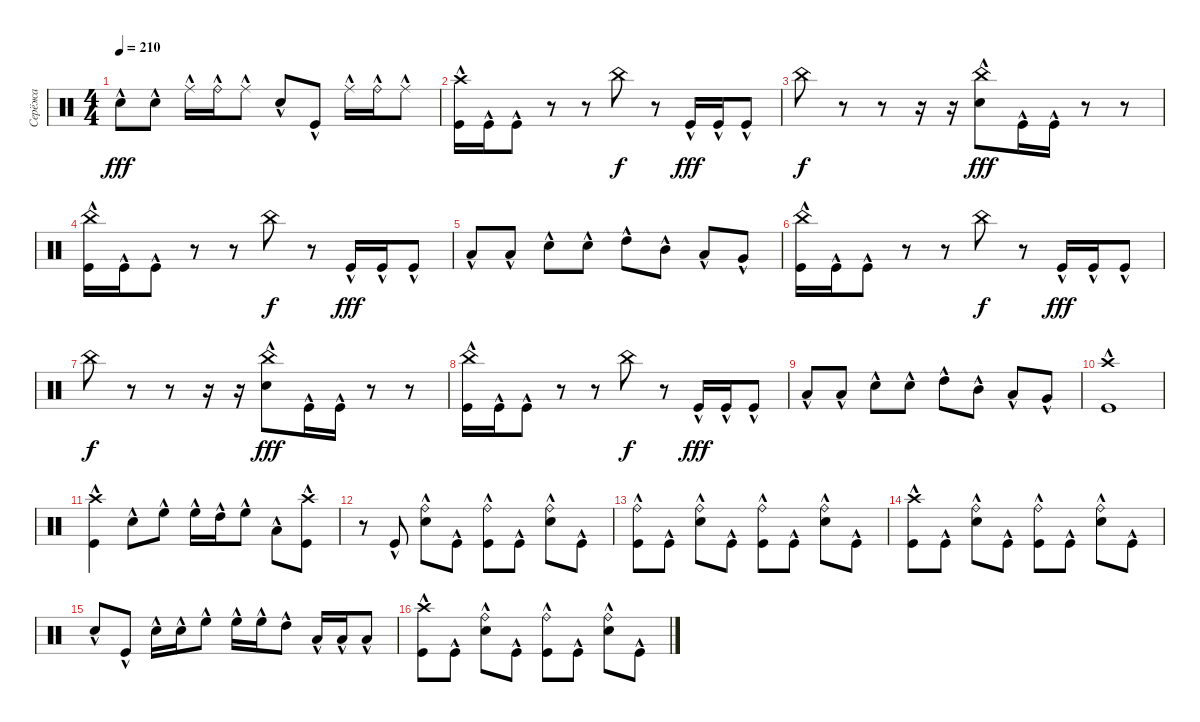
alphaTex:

\track ("Серёжа" "Серёжа") {instrument percussion}
\staff {score}
\articulation defaults
\ts (4 4)
\tempo 210
\clef neutral
\ks c "Snare (hit) 2"{hac}.8{dy fff} "Snare (hit) 2"{hac}.8 "Ride (middle)"{hac}.16 "Ride (bell)"{hac}.16 "Ride (middle)"{hac}.8 "Snare (hit) 2"{hac}.8 "Kick (hit)"{hac}.8 "Ride (middle)"{hac}.16 "Ride (bell)"{hac}.16 "Ride (middle)"{hac}.8
|
("Crash high (hit)"{hac} "Kick (hit)"{hac}).16 "Kick (hit)"{hac}.16 "Kick (hit)"{hac}.8 r.8 r.8 "China (hit)".8{dy f} r.8 "Kick (hit)"{hac}.16{dy fff} "Kick (hit)"{hac}.16 "Kick (hit)"{hac}.8 |
"China (hit)".8{dy f} r.8 r.8 r.16 r.16 ("China (hit)" "Snare (hit) 2"{hac}).8{dy fff} "Kick (hit)"{hac}.16 "Kick (hit)"{hac}.16 r.8 r.8 |
("China (hit)" "Kick (hit)"{hac}).16 "Kick (hit)"{hac}.16 "Kick (hit)"{hac}.8 r.8 r.8 "China (hit)".8{dy f} r.8 "Kick (hit)"{hac}.16{dy fff} "Kick (hit)"{hac}.16 "Kick (hit)"{hac}.8 |
"Low Floor Tom (hit)"{hac}.8 "Low Floor Tom (hit)"{hac}.8 "Snare (hit) 2"{hac}.8 "Snare (hit) 2"{hac}.8 "High Tom (hit)"{hac}.8 "Mid Tom (hit)"{hac}.8 "Low Tom (hit)"{hac}.8 "Very Low Tom (hit)"{hac}.8 |
("China (hit)" "Kick (hit)"{hac}).16 "Kick (hit)"{hac}.16 "Kick (hit)"{hac}.8 r.8 r.8 "China (hit)".8{dy f} r.8 "Kick (hit)"{hac}.16{dy fff} "Kick (hit)"{hac}.16 "Kick (hit)"{hac}.8 |
"China (hit)".8{dy f} r.8 r.8 r.16 r.16 ("China (hit)" "Snare (hit) 2"{hac}).8{dy fff} "Kick (hit)"{hac}.16 "Kick (hit)"{hac}.16 r.8 r.8 |
("China (hit)" "Kick (hit)"{hac}).16 "Kick (hit)"{hac}.16 "Kick (hit)"{hac}.8 r.8 r.8 "China (hit)".8{dy f} r.8 "Kick (hit)"{hac}.16{dy fff} "Kick (hit)"{hac}.16 "Kick (hit)"{hac}.8 |
"Low Floor Tom (hit)"{hac}.8 "Low Floor Tom (hit)"{hac}.8 "Snare (hit) 2"{hac}.8 "Snare (hit) 2"{hac}.8 "High Tom (hit)"{hac}.8 "Mid Tom (hit)"{hac}.8 "Low Tom (hit)"{hac}.8 "Very Low Tom (hit)"{hac}.8 |
("Crash high (hit)"{hac} "Kick (hit)"{hac}).1 |
("Crash high (hit)"{hac} "Kick (hit)"{hac}).4 "Snare (hit) 2"{hac}.8 "High Floor Tom (hit)"{hac}.8 "High Floor Tom (hit)"{hac}.16 "High Tom (hit)"{hac}.16 "High Floor Tom (hit)"{hac}.8 "Low Tom (hit)"{hac}.8 ("Crash high (hit)" "Kick (hit)"{hac}).8 |
r.8 "Kick (hit)"{hac}.8 ("Ride (bell)" "Snare (hit) 2"{hac}).8 "Kick (hit)"{hac}.8 ("Ride (bell)" "Kick (hit)"{hac}).8 "Kick (hit)"{hac}.8 ("Ride (bell)" "Snare (hit) 2"{hac}).8 "Kick (hit)"{hac}.8 |
("Ride (bell)" "Kick (hit)"{hac}).8 "Kick (hit)"{hac}.8 ("Ride (bell)" "Snare (hit) 2"{hac}).8 "Kick (hit)"{hac}.8 ("Ride (bell)" "Kick (hit)"{hac}).8 "Kick (hit)"{hac}.8 ("Ride (bell)" "Snare (hit) 2"{hac}).8 "Kick (hit)"{hac}.8 |
("Crash high (hit)"{hac} "Kick (hit)"{hac}).8 "Kick (hit)"{hac}.8 ("Ride (bell)" "Snare (hit) 2"{hac}).8 "Kick (hit)"{hac}.8 ("Ride (bell)" "Kick (hit)"{hac}).8 "Kick (hit)"{hac}.8 ("Ride (bell)" "Snare (hit) 2"{hac}).8 "Kick (hit)"{hac}.8 |
"Snare (hit) 2"{hac}.8 "Kick (hit)"{hac}.8 "Snare (hit) 2"{hac}.16 "Snare (hit) 2"{hac}.16 "High Floor Tom (hit)"{hac}.8 "High Floor Tom (hit)"{hac}.16 "High Floor Tom (hit)"{hac}.16 "High Tom (hit)"{hac}.8 "Low Tom (hit)"{hac}.16 "Low Tom (hit)"{hac}.16 "Low Floor Tom (hit)"{hac}.8 |
("Crash high (hit)"{hac} "Kick (hit)"{hac}).8 "Kick (hit)"{hac}.8 ("Ride (bell)" "Snare (hit) 2"{hac}).8 "Kick (hit)"{hac}.8 ("Ride (bell)" "Kick (hit)"{hac}).8 "Kick (hit)"{hac}.8 ("Ride (bell)" "Snare (hit) 2"{hac}).8 "Kick (hit)"{hac}.8
